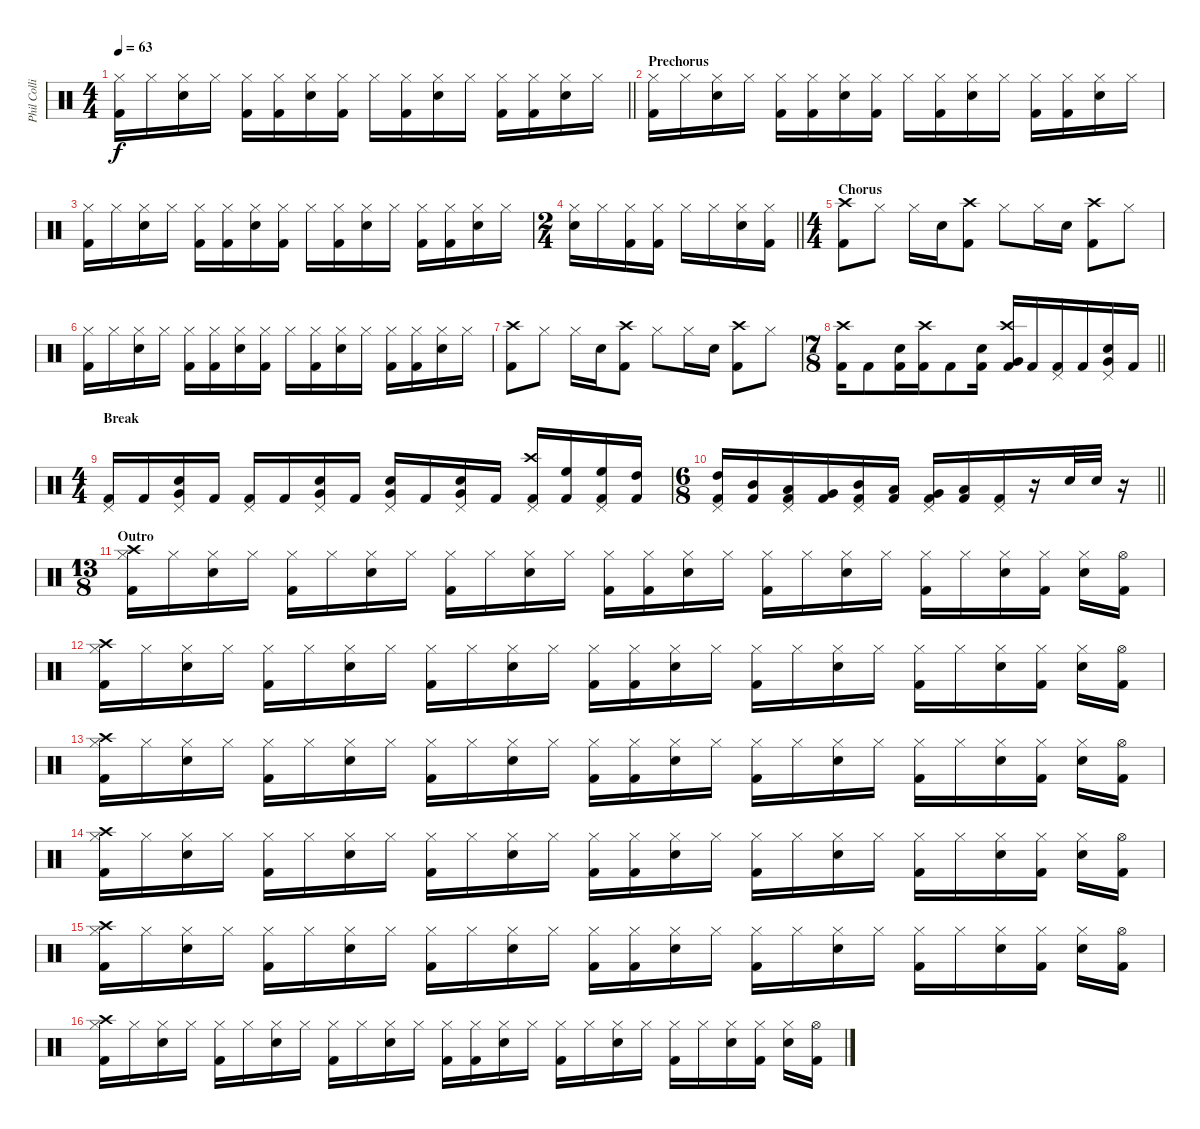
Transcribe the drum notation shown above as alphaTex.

\track ("Phil Collins (Percussion)" "Phil Colli") {instrument percussion}
\staff {score}
\articulation defaults
\ts (4 4)
\tempo 63
\clef neutral
\barLineRight lightlight
\ks c
("Hi-Hat (closed)" "Kick (hit) 2").16{dy f} "Hi-Hat (closed)".16 ("Snare (hit) 2" "Hi-Hat (closed)").16 "Hi-Hat (closed)".16 ("Hi-Hat (closed)" "Kick (hit) 2").16 ("Hi-Hat (closed)" "Kick (hit) 2").16 ("Snare (hit) 2" "Hi-Hat (closed)").16 ("Hi-Hat (closed)" "Kick (hit) 2").16 "Hi-Hat (closed)".16 ("Hi-Hat (closed)" "Kick (hit) 2").16 ("Snare (hit) 2" "Hi-Hat (closed)").16 "Hi-Hat (closed)".16 ("Hi-Hat (closed)" "Kick (hit) 2").16 ("Hi-Hat (closed)" "Kick (hit) 2").16 ("Snare (hit) 2" "Hi-Hat (closed)").16 "Hi-Hat (closed)".16 |
\section ("" "Prechorus")
("Hi-Hat (closed)" "Kick (hit) 2").16 "Hi-Hat (closed)".16 ("Snare (hit) 2" "Hi-Hat (closed)").16 "Hi-Hat (closed)".16 ("Hi-Hat (closed)" "Kick (hit) 2").16 ("Hi-Hat (closed)" "Kick (hit) 2").16 ("Snare (hit) 2" "Hi-Hat (closed)").16 ("Hi-Hat (closed)" "Kick (hit) 2").16 "Hi-Hat (closed)".16 ("Hi-Hat (closed)" "Kick (hit) 2").16 ("Snare (hit) 2" "Hi-Hat (closed)").16 "Hi-Hat (closed)".16 ("Hi-Hat (closed)" "Kick (hit) 2").16 ("Hi-Hat (closed)" "Kick (hit) 2").16 ("Snare (hit) 2" "Hi-Hat (closed)").16 "Hi-Hat (closed)".16 |
("Hi-Hat (closed)" "Kick (hit) 2").16 "Hi-Hat (closed)".16 ("Snare (hit) 2" "Hi-Hat (closed)").16 "Hi-Hat (closed)".16 ("Hi-Hat (closed)" "Kick (hit) 2").16 ("Hi-Hat (closed)" "Kick (hit) 2").16 ("Snare (hit) 2" "Hi-Hat (closed)").16 ("Hi-Hat (closed)" "Kick (hit) 2").16 "Hi-Hat (closed)".16 ("Hi-Hat (closed)" "Kick (hit) 2").16 ("Snare (hit) 2" "Hi-Hat (closed)").16 "Hi-Hat (closed)".16 ("Hi-Hat (closed)" "Kick (hit) 2").16 ("Hi-Hat (closed)" "Kick (hit) 2").16 ("Snare (hit) 2" "Hi-Hat (closed)").16 "Hi-Hat (closed)".16 |
\ts (2 4)
\barLineRight lightlight
("Snare (hit) 2" "Hi-Hat (closed)").16 "Hi-Hat (closed)".16 ("Hi-Hat (closed)" "Kick (hit) 2").16 ("Hi-Hat (closed)" "Kick (hit) 2").16 "Hi-Hat (closed)".16 "Hi-Hat (closed)".16 ("Snare (hit) 2" "Hi-Hat (closed)").16 ("Hi-Hat (closed)" "Kick (hit) 2").16 |
\ts (4 4)
\section ("" "Chorus")
("Crash high (hit)" "Kick (hit) 2").8 "Hi-Hat (closed)".8 "Hi-Hat (closed)".16 "Snare (hit) 2".16 ("Crash high (hit)" "Kick (hit) 2").8 "Hi-Hat (closed)".8 "Hi-Hat (closed)".16 "Snare (hit) 2".16 ("Crash high (hit)" "Kick (hit) 2").8 "Hi-Hat (closed)".8 |
("Hi-Hat (closed)" "Kick (hit) 2").16 "Hi-Hat (closed)".16 ("Snare (hit) 2" "Hi-Hat (closed)").16 "Hi-Hat (closed)".16 ("Hi-Hat (closed)" "Kick (hit) 2").16 ("Hi-Hat (closed)" "Kick (hit) 2").16 ("Snare (hit) 2" "Hi-Hat (closed)").16 ("Hi-Hat (closed)" "Kick (hit) 2").16 "Hi-Hat (closed)".16 ("Hi-Hat (closed)" "Kick (hit) 2").16 ("Snare (hit) 2" "Hi-Hat (closed)").16 "Hi-Hat (closed)".16 ("Hi-Hat (closed)" "Kick (hit) 2").16 ("Hi-Hat (closed)" "Kick (hit) 2").16 ("Snare (hit) 2" "Hi-Hat (closed)").16 "Hi-Hat (closed)".16 |
("Crash high (hit)" "Kick (hit) 2").8 "Hi-Hat (closed)".8 "Hi-Hat (closed)".16 "Snare (hit) 2".16 ("Crash high (hit)" "Kick (hit) 2").8 "Hi-Hat (closed)".8 "Hi-Hat (closed)".16 "Snare (hit) 2".16 ("Crash high (hit)" "Kick (hit) 2").8 "Hi-Hat (closed)".8 |
\ts (7 8)
\barLineRight lightlight
("Crash high (hit)" "Kick (hit) 2").16 "Kick (hit) 2".8 ("Snare (hit) 2" "Kick (hit) 2").16 ("Crash high (hit)" "Kick (hit) 2").16 "Kick (hit) 2".8 ("Snare (hit) 2" "Kick (hit) 2").16 ("Crash high (hit)" "Very Low Tom (hit)" "Kick (hit) 2").16 "Kick (hit) 2".16 ("Pedal Hi-Hat (hit)" "Kick (hit) 2").16 "Kick (hit) 2".16 ("Very Low Tom (hit)" "Pedal Hi-Hat (hit)" "Snare (hit) 2").16 "Kick (hit) 2".16 |
\ts (4 4)
\section ("" "Break")
("Pedal Hi-Hat (hit)" "Kick (hit) 2").16 "Kick (hit) 2".16 ("Very Low Tom (hit)" "Pedal Hi-Hat (hit)" "Snare (hit) 2").16 "Kick (hit) 2".16 ("Pedal Hi-Hat (hit)" "Kick (hit) 2").16 "Kick (hit) 2".16 ("Very Low Tom (hit)" "Pedal Hi-Hat (hit)" "Snare (hit) 2").16 "Kick (hit) 2".16 ("Very Low Tom (hit)" "Pedal Hi-Hat (hit)" "Snare (hit) 2").16 "Kick (hit) 2".16 ("Very Low Tom (hit)" "Pedal Hi-Hat (hit)" "Snare (hit) 2").16 "Kick (hit) 2".16 ("Crash high (hit)" "Pedal Hi-Hat (hit)" "Kick (hit) 2").16 ("High Floor Tom (hit)" "Kick (hit) 2").16 ("High Floor Tom (hit)" "Pedal Hi-Hat (hit)" "Kick (hit) 2").16 ("High Tom (hit)" "Kick (hit) 2").16 |
\ts (6 8)
\barLineRight lightlight
("High Tom (hit)" "Pedal Hi-Hat (hit)" "Kick (hit) 2").16 ("Mid Tom (hit)" "Kick (hit) 2").16 ("Low Tom (hit)" "Pedal Hi-Hat (hit)" "Kick (hit) 2").16 ("Very Low Tom (hit)" "Kick (hit) 2").16 ("Mid Tom (hit)" "Pedal Hi-Hat (hit)" "Kick (hit) 2").16 ("Low Tom (hit)" "Kick (hit) 2").16 ("Very Low Tom (hit)" "Pedal Hi-Hat (hit)" "Kick (hit) 2").16 ("Low Floor Tom (hit)" "Kick (hit) 2").16 ("Pedal Hi-Hat (hit)" "Kick (hit) 2").16 r.16 "Snare (hit) 2".32 "Snare (hit) 2".32 r.16 |
\ts (13 8)
\section ("" "Outro")
("Crash high (hit)" "Hi-Hat (closed)" "Kick (hit) 2").16 "Hi-Hat (closed)".16 ("Snare (hit) 2" "Hi-Hat (closed)").16 "Hi-Hat (closed)".16 ("Hi-Hat (closed)" "Kick (hit) 2").16 "Hi-Hat (closed)".16 ("Snare (hit) 2" "Hi-Hat (closed)").16 "Hi-Hat (closed)".16 ("Hi-Hat (closed)" "Kick (hit) 2").16 "Hi-Hat (closed)".16 ("Snare (hit) 2" "Hi-Hat (closed)").16 "Hi-Hat (closed)".16 ("Hi-Hat (closed)" "Kick (hit) 2").16 ("Hi-Hat (closed)" "Kick (hit) 2").16 ("Snare (hit) 2" "Hi-Hat (closed)").16 "Hi-Hat (closed)".16 ("Hi-Hat (closed)" "Kick (hit) 2").16 "Hi-Hat (closed)".16 ("Snare (hit) 2" "Hi-Hat (closed)").16 "Hi-Hat (closed)".16 ("Hi-Hat (closed)" "Kick (hit) 2").16 "Hi-Hat (closed)".16 ("Snare (hit) 2" "Hi-Hat (closed)").16 ("Hi-Hat (closed)" "Kick (hit) 2").16 ("Snare (hit) 2" "Hi-Hat (closed)").16 ("Hi-Hat (open)" "Kick (hit) 2").16 |
("Crash high (hit)" "Hi-Hat (closed)" "Kick (hit) 2").16 "Hi-Hat (closed)".16 ("Snare (hit) 2" "Hi-Hat (closed)").16 "Hi-Hat (closed)".16 ("Hi-Hat (closed)" "Kick (hit) 2").16 "Hi-Hat (closed)".16 ("Snare (hit) 2" "Hi-Hat (closed)").16 "Hi-Hat (closed)".16 ("Hi-Hat (closed)" "Kick (hit) 2").16 "Hi-Hat (closed)".16 ("Snare (hit) 2" "Hi-Hat (closed)").16 "Hi-Hat (closed)".16 ("Hi-Hat (closed)" "Kick (hit) 2").16 ("Hi-Hat (closed)" "Kick (hit) 2").16 ("Snare (hit) 2" "Hi-Hat (closed)").16 "Hi-Hat (closed)".16 ("Hi-Hat (closed)" "Kick (hit) 2").16 "Hi-Hat (closed)".16 ("Snare (hit) 2" "Hi-Hat (closed)").16 "Hi-Hat (closed)".16 ("Hi-Hat (closed)" "Kick (hit) 2").16 "Hi-Hat (closed)".16 ("Snare (hit) 2" "Hi-Hat (closed)").16 ("Hi-Hat (closed)" "Kick (hit) 2").16 ("Snare (hit) 2" "Hi-Hat (closed)").16 ("Hi-Hat (open)" "Kick (hit) 2").16 |
("Crash high (hit)" "Hi-Hat (closed)" "Kick (hit) 2").16 "Hi-Hat (closed)".16 ("Snare (hit) 2" "Hi-Hat (closed)").16 "Hi-Hat (closed)".16 ("Hi-Hat (closed)" "Kick (hit) 2").16 "Hi-Hat (closed)".16 ("Snare (hit) 2" "Hi-Hat (closed)").16 "Hi-Hat (closed)".16 ("Hi-Hat (closed)" "Kick (hit) 2").16 "Hi-Hat (closed)".16 ("Snare (hit) 2" "Hi-Hat (closed)").16 "Hi-Hat (closed)".16 ("Hi-Hat (closed)" "Kick (hit) 2").16 ("Hi-Hat (closed)" "Kick (hit) 2").16 ("Snare (hit) 2" "Hi-Hat (closed)").16 "Hi-Hat (closed)".16 ("Hi-Hat (closed)" "Kick (hit) 2").16 "Hi-Hat (closed)".16 ("Snare (hit) 2" "Hi-Hat (closed)").16 "Hi-Hat (closed)".16 ("Hi-Hat (closed)" "Kick (hit) 2").16 "Hi-Hat (closed)".16 ("Snare (hit) 2" "Hi-Hat (closed)").16 ("Hi-Hat (closed)" "Kick (hit) 2").16 ("Snare (hit) 2" "Hi-Hat (closed)").16 ("Hi-Hat (open)" "Kick (hit) 2").16 |
("Crash high (hit)" "Hi-Hat (closed)" "Kick (hit) 2").16 "Hi-Hat (closed)".16 ("Snare (hit) 2" "Hi-Hat (closed)").16 "Hi-Hat (closed)".16 ("Hi-Hat (closed)" "Kick (hit) 2").16 "Hi-Hat (closed)".16 ("Snare (hit) 2" "Hi-Hat (closed)").16 "Hi-Hat (closed)".16 ("Hi-Hat (closed)" "Kick (hit) 2").16 "Hi-Hat (closed)".16 ("Snare (hit) 2" "Hi-Hat (closed)").16 "Hi-Hat (closed)".16 ("Hi-Hat (closed)" "Kick (hit) 2").16 ("Hi-Hat (closed)" "Kick (hit) 2").16 ("Snare (hit) 2" "Hi-Hat (closed)").16 "Hi-Hat (closed)".16 ("Hi-Hat (closed)" "Kick (hit) 2").16 "Hi-Hat (closed)".16 ("Snare (hit) 2" "Hi-Hat (closed)").16 "Hi-Hat (closed)".16 ("Hi-Hat (closed)" "Kick (hit) 2").16 "Hi-Hat (closed)".16 ("Snare (hit) 2" "Hi-Hat (closed)").16 ("Hi-Hat (closed)" "Kick (hit) 2").16 ("Snare (hit) 2" "Hi-Hat (closed)").16 ("Hi-Hat (open)" "Kick (hit) 2").16 |
("Crash high (hit)" "Hi-Hat (closed)" "Kick (hit) 2").16 "Hi-Hat (closed)".16 ("Snare (hit) 2" "Hi-Hat (closed)").16 "Hi-Hat (closed)".16 ("Hi-Hat (closed)" "Kick (hit) 2").16 "Hi-Hat (closed)".16 ("Snare (hit) 2" "Hi-Hat (closed)").16 "Hi-Hat (closed)".16 ("Hi-Hat (closed)" "Kick (hit) 2").16 "Hi-Hat (closed)".16 ("Snare (hit) 2" "Hi-Hat (closed)").16 "Hi-Hat (closed)".16 ("Hi-Hat (closed)" "Kick (hit) 2").16 ("Hi-Hat (closed)" "Kick (hit) 2").16 ("Snare (hit) 2" "Hi-Hat (closed)").16 "Hi-Hat (closed)".16 ("Hi-Hat (closed)" "Kick (hit) 2").16 "Hi-Hat (closed)".16 ("Snare (hit) 2" "Hi-Hat (closed)").16 "Hi-Hat (closed)".16 ("Hi-Hat (closed)" "Kick (hit) 2").16 "Hi-Hat (closed)".16 ("Snare (hit) 2" "Hi-Hat (closed)").16 ("Hi-Hat (closed)" "Kick (hit) 2").16 ("Snare (hit) 2" "Hi-Hat (closed)").16 ("Hi-Hat (open)" "Kick (hit) 2").16 |
("Crash high (hit)" "Hi-Hat (closed)" "Kick (hit) 2").16 "Hi-Hat (closed)".16 ("Snare (hit) 2" "Hi-Hat (closed)").16 "Hi-Hat (closed)".16 ("Hi-Hat (closed)" "Kick (hit) 2").16 "Hi-Hat (closed)".16 ("Snare (hit) 2" "Hi-Hat (closed)").16 "Hi-Hat (closed)".16 ("Hi-Hat (closed)" "Kick (hit) 2").16 "Hi-Hat (closed)".16 ("Snare (hit) 2" "Hi-Hat (closed)").16 "Hi-Hat (closed)".16 ("Hi-Hat (closed)" "Kick (hit) 2").16 ("Hi-Hat (closed)" "Kick (hit) 2").16 ("Snare (hit) 2" "Hi-Hat (closed)").16 "Hi-Hat (closed)".16 ("Hi-Hat (closed)" "Kick (hit) 2").16 "Hi-Hat (closed)".16 ("Snare (hit) 2" "Hi-Hat (closed)").16 "Hi-Hat (closed)".16 ("Hi-Hat (closed)" "Kick (hit) 2").16 "Hi-Hat (closed)".16 ("Snare (hit) 2" "Hi-Hat (closed)").16 ("Hi-Hat (closed)" "Kick (hit) 2").16 ("Snare (hit) 2" "Hi-Hat (closed)").16 ("Hi-Hat (open)" "Kick (hit) 2").16
